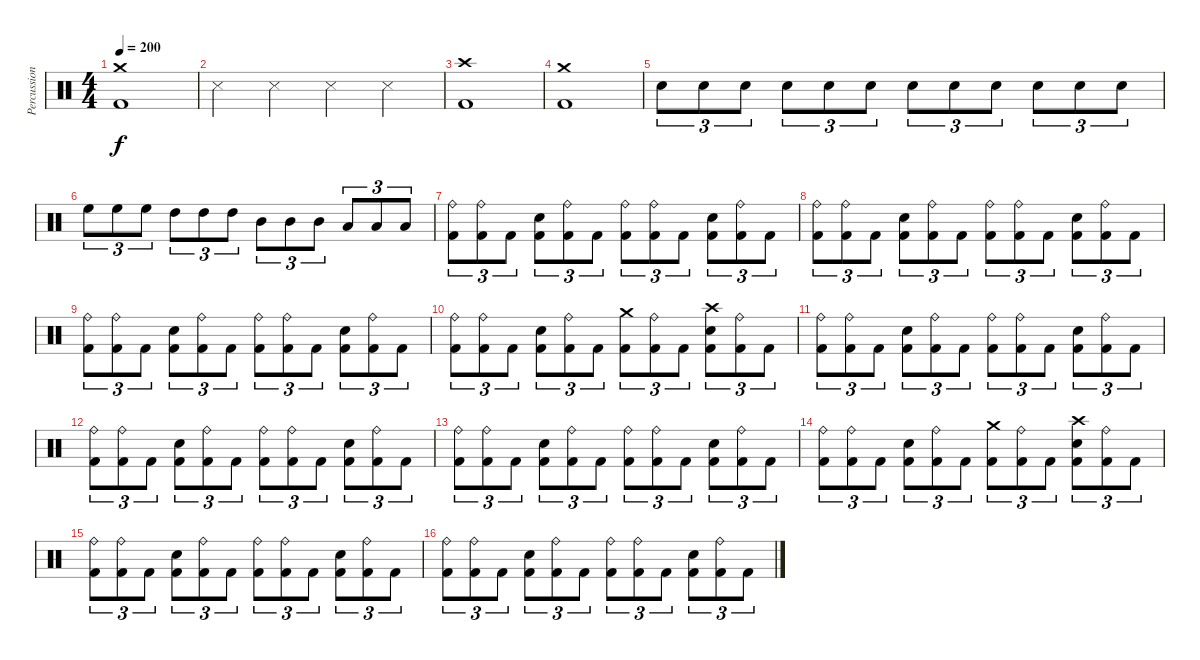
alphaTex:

\track ("Percussion" "Percussion") {instrument percussion}
\staff {score}
\articulation defaults
\ts (4 4)
\tempo 200
\clef neutral
\ks c
("Crash medium (hit)" "Kick (hit) 2").1{dy f} |
"Snare (side stick) 3".4 "Snare (side stick) 3".4 "Snare (side stick) 3".4 "Snare (side stick) 3".4 |
("Crash high (hit)" "Kick (hit) 2").1 |
("Crash medium (hit)" "Kick (hit) 2").1 |
"Electric Snare (hit)".8{tu (3 2)} "Electric Snare (hit)".8{tu (3 2)} "Electric Snare (hit)".8{tu (3 2)} "Electric Snare (hit)".8{tu (3 2)} "Electric Snare (hit)".8{tu (3 2)} "Electric Snare (hit)".8{tu (3 2)} "Electric Snare (hit)".8{tu (3 2)} "Electric Snare (hit)".8{tu (3 2)} "Electric Snare (hit)".8{tu (3 2)} "Electric Snare (hit)".8{tu (3 2)} "Electric Snare (hit)".8{tu (3 2)} "Electric Snare (hit)".8{tu (3 2)} |
"High Floor Tom (hit)".8{tu (3 2)} "High Floor Tom (hit)".8{tu (3 2)} "High Floor Tom (hit)".8{tu (3 2)} "High Tom (hit)".8{tu (3 2)} "High Tom (hit)".8{tu (3 2)} "High Tom (hit)".8{tu (3 2)} "Mid Tom (hit)".8{tu (3 2)} "Mid Tom (hit)".8{tu (3 2)} "Mid Tom (hit)".8{tu (3 2)} "Low Tom (hit)".8{tu (3 2)} "Low Tom (hit)".8{tu (3 2)} "Low Tom (hit)".8{tu (3 2)} |
("Ride (bell)" "Kick (hit) 2").8{tu (3 2)} ("Ride (bell)" "Kick (hit) 2").8{tu (3 2)} "Kick (hit) 2".8{tu (3 2)} ("Electric Snare (hit)" "Kick (hit) 2").8{tu (3 2)} ("Ride (bell)" "Kick (hit) 2").8{tu (3 2)} "Kick (hit) 2".8{tu (3 2)} ("Ride (bell)" "Kick (hit) 2").8{tu (3 2)} ("Ride (bell)" "Kick (hit) 2").8{tu (3 2)} "Kick (hit) 2".8{tu (3 2)} ("Electric Snare (hit)" "Kick (hit) 2").8{tu (3 2)} ("Ride (bell)" "Kick (hit) 2").8{tu (3 2)} "Kick (hit) 2".8{tu (3 2)} |
("Ride (bell)" "Kick (hit) 2").8{tu (3 2)} ("Ride (bell)" "Kick (hit) 2").8{tu (3 2)} "Kick (hit) 2".8{tu (3 2)} ("Electric Snare (hit)" "Kick (hit) 2").8{tu (3 2)} ("Ride (bell)" "Kick (hit) 2").8{tu (3 2)} "Kick (hit) 2".8{tu (3 2)} ("Ride (bell)" "Kick (hit) 2").8{tu (3 2)} ("Ride (bell)" "Kick (hit) 2").8{tu (3 2)} "Kick (hit) 2".8{tu (3 2)} ("Electric Snare (hit)" "Kick (hit) 2").8{tu (3 2)} ("Ride (bell)" "Kick (hit) 2").8{tu (3 2)} "Kick (hit) 2".8{tu (3 2)} |
("Ride (bell)" "Kick (hit) 2").8{tu (3 2)} ("Ride (bell)" "Kick (hit) 2").8{tu (3 2)} "Kick (hit) 2".8{tu (3 2)} ("Electric Snare (hit)" "Kick (hit) 2").8{tu (3 2)} ("Ride (bell)" "Kick (hit) 2").8{tu (3 2)} "Kick (hit) 2".8{tu (3 2)} ("Ride (bell)" "Kick (hit) 2").8{tu (3 2)} ("Ride (bell)" "Kick (hit) 2").8{tu (3 2)} "Kick (hit) 2".8{tu (3 2)} ("Electric Snare (hit)" "Kick (hit) 2").8{tu (3 2)} ("Ride (bell)" "Kick (hit) 2").8{tu (3 2)} "Kick (hit) 2".8{tu (3 2)} |
("Ride (bell)" "Kick (hit) 2").8{tu (3 2)} ("Ride (bell)" "Kick (hit) 2").8{tu (3 2)} "Kick (hit) 2".8{tu (3 2)} ("Electric Snare (hit)" "Kick (hit) 2").8{tu (3 2)} ("Ride (bell)" "Kick (hit) 2").8{tu (3 2)} "Kick (hit) 2".8{tu (3 2)} ("Crash medium (hit)" "Kick (hit) 2").8{tu (3 2)} ("Ride (bell)" "Kick (hit) 2").8{tu (3 2)} "Kick (hit) 2".8{tu (3 2)} ("Crash high (hit)" "Electric Snare (hit)" "Kick (hit) 2").8{tu (3 2)} ("Ride (bell)" "Kick (hit) 2").8{tu (3 2)} "Kick (hit) 2".8{tu (3 2)} |
("Ride (bell)" "Kick (hit) 2").8{tu (3 2)} ("Ride (bell)" "Kick (hit) 2").8{tu (3 2)} "Kick (hit) 2".8{tu (3 2)} ("Electric Snare (hit)" "Kick (hit) 2").8{tu (3 2)} ("Ride (bell)" "Kick (hit) 2").8{tu (3 2)} "Kick (hit) 2".8{tu (3 2)} ("Ride (bell)" "Kick (hit) 2").8{tu (3 2)} ("Ride (bell)" "Kick (hit) 2").8{tu (3 2)} "Kick (hit) 2".8{tu (3 2)} ("Electric Snare (hit)" "Kick (hit) 2").8{tu (3 2)} ("Ride (bell)" "Kick (hit) 2").8{tu (3 2)} "Kick (hit) 2".8{tu (3 2)} |
("Ride (bell)" "Kick (hit) 2").8{tu (3 2)} ("Ride (bell)" "Kick (hit) 2").8{tu (3 2)} "Kick (hit) 2".8{tu (3 2)} ("Electric Snare (hit)" "Kick (hit) 2").8{tu (3 2)} ("Ride (bell)" "Kick (hit) 2").8{tu (3 2)} "Kick (hit) 2".8{tu (3 2)} ("Ride (bell)" "Kick (hit) 2").8{tu (3 2)} ("Ride (bell)" "Kick (hit) 2").8{tu (3 2)} "Kick (hit) 2".8{tu (3 2)} ("Electric Snare (hit)" "Kick (hit) 2").8{tu (3 2)} ("Ride (bell)" "Kick (hit) 2").8{tu (3 2)} "Kick (hit) 2".8{tu (3 2)} |
("Ride (bell)" "Kick (hit) 2").8{tu (3 2)} ("Ride (bell)" "Kick (hit) 2").8{tu (3 2)} "Kick (hit) 2".8{tu (3 2)} ("Electric Snare (hit)" "Kick (hit) 2").8{tu (3 2)} ("Ride (bell)" "Kick (hit) 2").8{tu (3 2)} "Kick (hit) 2".8{tu (3 2)} ("Ride (bell)" "Kick (hit) 2").8{tu (3 2)} ("Ride (bell)" "Kick (hit) 2").8{tu (3 2)} "Kick (hit) 2".8{tu (3 2)} ("Electric Snare (hit)" "Kick (hit) 2").8{tu (3 2)} ("Ride (bell)" "Kick (hit) 2").8{tu (3 2)} "Kick (hit) 2".8{tu (3 2)} |
("Ride (bell)" "Kick (hit) 2").8{tu (3 2)} ("Ride (bell)" "Kick (hit) 2").8{tu (3 2)} "Kick (hit) 2".8{tu (3 2)} ("Electric Snare (hit)" "Kick (hit) 2").8{tu (3 2)} ("Ride (bell)" "Kick (hit) 2").8{tu (3 2)} "Kick (hit) 2".8{tu (3 2)} ("Crash medium (hit)" "Kick (hit) 2").8{tu (3 2)} ("Ride (bell)" "Kick (hit) 2").8{tu (3 2)} "Kick (hit) 2".8{tu (3 2)} ("Crash high (hit)" "Electric Snare (hit)" "Kick (hit) 2").8{tu (3 2)} ("Ride (bell)" "Kick (hit) 2").8{tu (3 2)} "Kick (hit) 2".8{tu (3 2)} |
("Ride (bell)" "Kick (hit) 2").8{tu (3 2)} ("Ride (bell)" "Kick (hit) 2").8{tu (3 2)} "Kick (hit) 2".8{tu (3 2)} ("Electric Snare (hit)" "Kick (hit) 2").8{tu (3 2)} ("Ride (bell)" "Kick (hit) 2").8{tu (3 2)} "Kick (hit) 2".8{tu (3 2)} ("Ride (bell)" "Kick (hit) 2").8{tu (3 2)} ("Ride (bell)" "Kick (hit) 2").8{tu (3 2)} "Kick (hit) 2".8{tu (3 2)} ("Electric Snare (hit)" "Kick (hit) 2").8{tu (3 2)} ("Ride (bell)" "Kick (hit) 2").8{tu (3 2)} "Kick (hit) 2".8{tu (3 2)} |
("Ride (bell)" "Kick (hit) 2").8{tu (3 2)} ("Ride (bell)" "Kick (hit) 2").8{tu (3 2)} "Kick (hit) 2".8{tu (3 2)} ("Electric Snare (hit)" "Kick (hit) 2").8{tu (3 2)} ("Ride (bell)" "Kick (hit) 2").8{tu (3 2)} "Kick (hit) 2".8{tu (3 2)} ("Ride (bell)" "Kick (hit) 2").8{tu (3 2)} ("Ride (bell)" "Kick (hit) 2").8{tu (3 2)} "Kick (hit) 2".8{tu (3 2)} ("Electric Snare (hit)" "Kick (hit) 2").8{tu (3 2)} ("Ride (bell)" "Kick (hit) 2").8{tu (3 2)} "Kick (hit) 2".8{tu (3 2)}
